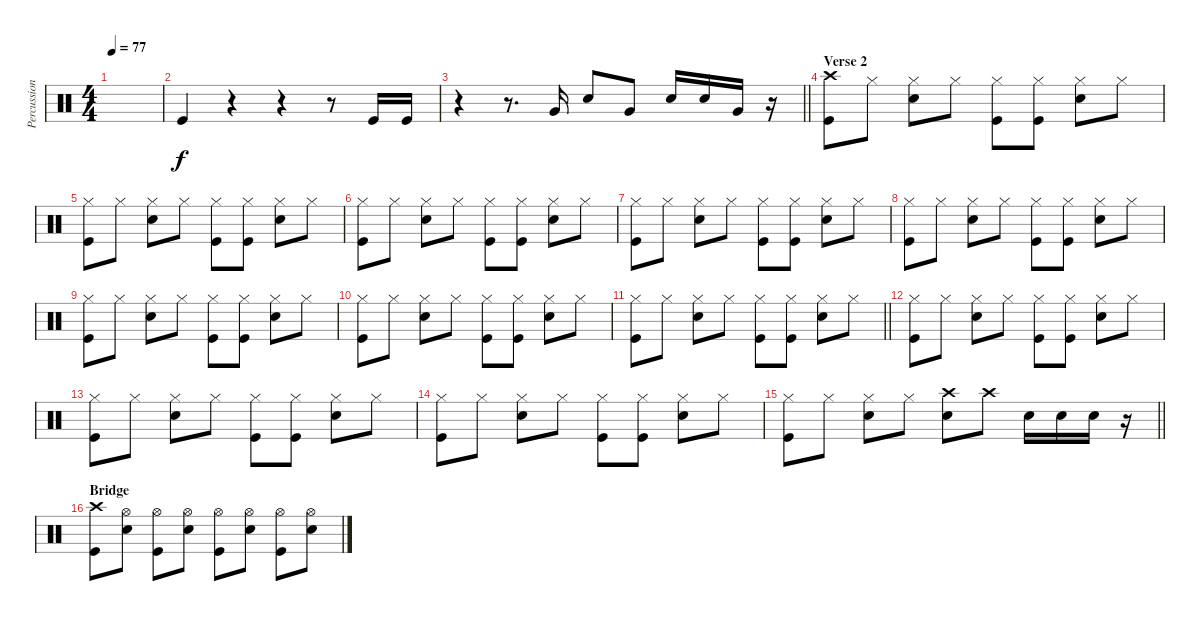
\track ("Percussion" "Percussion") {instrument percussion}
\staff {score}
\articulation defaults
\ts (4 4)
\tempo 77
\clef neutral
\ks c
|
"Kick (hit)".4 r.4 r.4 r.8 "Kick (hit)".16 "Kick (hit)".16 |
\barLineRight lightlight
r.4 r.8{d} "Very Low Tom (hit)".16 "Snare (hit) 2".8 "Very Low Tom (hit)".8 "Snare (hit) 2".16 "Snare (hit) 2".16 "Very Low Tom (hit)".16 r.16 |
\section ("" "Verse 2")
("Crash high (hit)" "Kick (hit)").8 "Hi-Hat (closed)".8 ("Hi-Hat (closed)" "Snare (hit) 2").8 "Hi-Hat (closed)".8 ("Hi-Hat (closed)" "Kick (hit)").8 ("Hi-Hat (closed)" "Kick (hit)").8 ("Hi-Hat (closed)" "Snare (hit) 2").8 "Hi-Hat (closed)".8 |
("Kick (hit)" "Hi-Hat (closed)").8 "Hi-Hat (closed)".8 ("Hi-Hat (closed)" "Snare (hit) 2").8 "Hi-Hat (closed)".8 ("Hi-Hat (closed)" "Kick (hit)").8 ("Hi-Hat (closed)" "Kick (hit)").8 ("Hi-Hat (closed)" "Snare (hit) 2").8 "Hi-Hat (closed)".8 |
("Kick (hit)" "Hi-Hat (closed)").8 "Hi-Hat (closed)".8 ("Hi-Hat (closed)" "Snare (hit) 2").8 "Hi-Hat (closed)".8 ("Hi-Hat (closed)" "Kick (hit)").8 ("Hi-Hat (closed)" "Kick (hit)").8 ("Hi-Hat (closed)" "Snare (hit) 2").8 "Hi-Hat (closed)".8 |
("Kick (hit)" "Hi-Hat (closed)").8 "Hi-Hat (closed)".8 ("Hi-Hat (closed)" "Snare (hit) 2").8 "Hi-Hat (closed)".8 ("Hi-Hat (closed)" "Kick (hit)").8 ("Hi-Hat (closed)" "Kick (hit)").8 ("Hi-Hat (closed)" "Snare (hit) 2").8 "Hi-Hat (closed)".8 |
("Kick (hit)" "Hi-Hat (closed)").8 "Hi-Hat (closed)".8 ("Hi-Hat (closed)" "Snare (hit) 2").8 "Hi-Hat (closed)".8 ("Hi-Hat (closed)" "Kick (hit)").8 ("Hi-Hat (closed)" "Kick (hit)").8 ("Hi-Hat (closed)" "Snare (hit) 2").8 "Hi-Hat (closed)".8 |
("Kick (hit)" "Hi-Hat (closed)").8 "Hi-Hat (closed)".8 ("Hi-Hat (closed)" "Snare (hit) 2").8 "Hi-Hat (closed)".8 ("Hi-Hat (closed)" "Kick (hit)").8 ("Hi-Hat (closed)" "Kick (hit)").8 ("Hi-Hat (closed)" "Snare (hit) 2").8 "Hi-Hat (closed)".8 |
("Kick (hit)" "Hi-Hat (closed)").8 "Hi-Hat (closed)".8 ("Hi-Hat (closed)" "Snare (hit) 2").8 "Hi-Hat (closed)".8 ("Hi-Hat (closed)" "Kick (hit)").8 ("Hi-Hat (closed)" "Kick (hit)").8 ("Hi-Hat (closed)" "Snare (hit) 2").8 "Hi-Hat (closed)".8 |
\barLineRight lightlight
("Kick (hit)" "Hi-Hat (closed)").8 "Hi-Hat (closed)".8 ("Hi-Hat (closed)" "Snare (hit) 2").8 "Hi-Hat (closed)".8 ("Hi-Hat (closed)" "Kick (hit)").8 ("Hi-Hat (closed)" "Kick (hit)").8 ("Hi-Hat (closed)" "Snare (hit) 2").8 "Hi-Hat (closed)".8 |
("Kick (hit)" "Hi-Hat (closed)").8 "Hi-Hat (closed)".8 ("Hi-Hat (closed)" "Snare (hit) 2").8 "Hi-Hat (closed)".8 ("Hi-Hat (closed)" "Kick (hit)").8 ("Hi-Hat (closed)" "Kick (hit)").8 ("Hi-Hat (closed)" "Snare (hit) 2").8 "Hi-Hat (closed)".8 |
("Kick (hit)" "Hi-Hat (closed)").8 "Hi-Hat (closed)".8 ("Hi-Hat (closed)" "Snare (hit) 2").8 "Hi-Hat (closed)".8 ("Hi-Hat (closed)" "Kick (hit)").8 ("Hi-Hat (closed)" "Kick (hit)").8 ("Hi-Hat (closed)" "Snare (hit) 2").8 "Hi-Hat (closed)".8 |
("Kick (hit)" "Hi-Hat (closed)").8 "Hi-Hat (closed)".8 ("Hi-Hat (closed)" "Snare (hit) 2").8 "Hi-Hat (closed)".8 ("Hi-Hat (closed)" "Kick (hit)").8 ("Hi-Hat (closed)" "Kick (hit)").8 ("Hi-Hat (closed)" "Snare (hit) 2").8 "Hi-Hat (closed)".8 |
\barLineRight lightlight
("Kick (hit)" "Hi-Hat (closed)").8 "Hi-Hat (closed)".8 ("Hi-Hat (closed)" "Snare (hit) 2").8 "Hi-Hat (closed)".8 ("Snare (hit) 2" "Crash high (hit)").8 "Crash high (hit)".8 "Snare (hit) 2".16 "Snare (hit) 2".16 "Snare (hit) 2".16 r.16 |
\section ("" "Bridge")
("Kick (hit)" "Crash high (hit)").8 ("Hi-Hat (open)" "Snare (hit) 2").8 ("Hi-Hat (open)" "Kick (hit)").8 ("Hi-Hat (open)" "Snare (hit) 2").8 ("Hi-Hat (open)" "Kick (hit)").8 ("Hi-Hat (open)" "Snare (hit) 2").8 ("Hi-Hat (open)" "Kick (hit)").8 ("Hi-Hat (open)" "Snare (hit) 2").8
